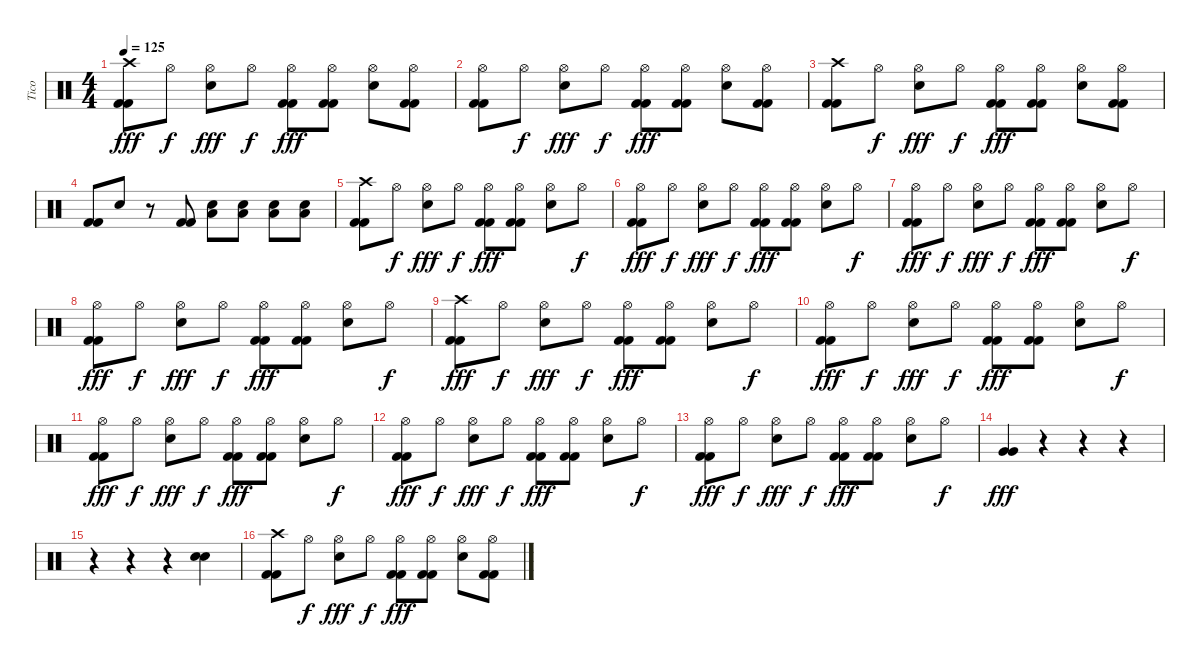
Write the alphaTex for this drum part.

\track ("Tico" "Tico") {instrument percussion}
\staff {score}
\articulation defaults
\ts (4 4)
\tempo 125
\clef neutral
\ks c
("Crash high (hit)" "Kick (hit) 2" "Kick (hit) 2").8{dy fff} "Hi-Hat (open)".8{dy f} ("Hi-Hat (open)" "Snare (hit) 2").8{dy fff} "Hi-Hat (open)".8{dy f} ("Hi-Hat (open)" "Kick (hit) 2" "Kick (hit) 2").8{dy fff} ("Hi-Hat (open)" "Kick (hit) 2" "Kick (hit) 2").8 ("Hi-Hat (open)" "Snare (hit) 2").8 ("Hi-Hat (open)" "Kick (hit) 2" "Kick (hit) 2").8 |
("Hi-Hat (open)" "Kick (hit) 2" "Kick (hit) 2").8 "Hi-Hat (open)".8{dy f} ("Hi-Hat (open)" "Snare (hit) 2").8{dy fff} "Hi-Hat (open)".8{dy f} ("Hi-Hat (open)" "Kick (hit) 2" "Kick (hit) 2").8{dy fff} ("Hi-Hat (open)" "Kick (hit) 2" "Kick (hit) 2").8 ("Hi-Hat (open)" "Snare (hit) 2").8 ("Hi-Hat (open)" "Kick (hit) 2" "Kick (hit) 2").8 |
("Crash high (hit)" "Kick (hit) 2" "Kick (hit) 2").8 "Hi-Hat (open)".8{dy f} ("Hi-Hat (open)" "Snare (hit) 2").8{dy fff} "Hi-Hat (open)".8{dy f} ("Hi-Hat (open)" "Kick (hit) 2" "Kick (hit) 2").8{dy fff} ("Hi-Hat (open)" "Kick (hit) 2" "Kick (hit) 2").8 ("Hi-Hat (open)" "Snare (hit) 2").8 ("Hi-Hat (open)" "Kick (hit) 2" "Kick (hit) 2").8 |
("Kick (hit) 2" "Kick (hit) 2").8 "Snare (hit) 2".8 r.8 ("Kick (hit) 2" "Kick (hit) 2").8 ("Snare (hit) 2" "Low Tom (hit)").8 ("Snare (hit) 2" "Low Tom (hit)").8 ("Snare (hit) 2" "Low Tom (hit)").8 ("Snare (hit) 2" "Low Tom (hit)").8 |
("Crash high (hit)" "Kick (hit) 2" "Kick (hit) 2").8 "Hi-Hat (open)".8{dy f} ("Hi-Hat (open)" "Snare (hit) 2").8{dy fff} "Hi-Hat (open)".8{dy f} ("Hi-Hat (open)" "Kick (hit) 2" "Kick (hit) 2").8{dy fff} ("Hi-Hat (open)" "Kick (hit) 2" "Kick (hit) 2").8 ("Hi-Hat (open)" "Snare (hit) 2").8 "Hi-Hat (open)".8{dy f} |
("Hi-Hat (open)" "Kick (hit) 2" "Kick (hit) 2").8{dy fff} "Hi-Hat (open)".8{dy f} ("Hi-Hat (open)" "Snare (hit) 2").8{dy fff} "Hi-Hat (open)".8{dy f} ("Hi-Hat (open)" "Kick (hit) 2" "Kick (hit) 2").8{dy fff} ("Hi-Hat (open)" "Kick (hit) 2" "Kick (hit) 2").8 ("Hi-Hat (open)" "Snare (hit) 2").8 "Hi-Hat (open)".8{dy f} |
("Hi-Hat (open)" "Kick (hit) 2" "Kick (hit) 2").8{dy fff} "Hi-Hat (open)".8{dy f} ("Hi-Hat (open)" "Snare (hit) 2").8{dy fff} "Hi-Hat (open)".8{dy f} ("Hi-Hat (open)" "Kick (hit) 2" "Kick (hit) 2").8{dy fff} ("Hi-Hat (open)" "Kick (hit) 2" "Kick (hit) 2").8 ("Hi-Hat (open)" "Snare (hit) 2").8 "Hi-Hat (open)".8{dy f} |
("Hi-Hat (open)" "Kick (hit) 2" "Kick (hit) 2").8{dy fff} "Hi-Hat (open)".8{dy f} ("Hi-Hat (open)" "Snare (hit) 2").8{dy fff} "Hi-Hat (open)".8{dy f} ("Hi-Hat (open)" "Kick (hit) 2" "Kick (hit) 2").8{dy fff} ("Hi-Hat (open)" "Kick (hit) 2" "Kick (hit) 2").8 ("Hi-Hat (open)" "Snare (hit) 2").8 "Hi-Hat (open)".8{dy f} |
("Crash high (hit)" "Kick (hit) 2" "Kick (hit) 2").8{dy fff} "Hi-Hat (open)".8{dy f} ("Hi-Hat (open)" "Snare (hit) 2").8{dy fff} "Hi-Hat (open)".8{dy f} ("Hi-Hat (open)" "Kick (hit) 2" "Kick (hit) 2").8{dy fff} ("Hi-Hat (open)" "Kick (hit) 2" "Kick (hit) 2").8 ("Hi-Hat (open)" "Snare (hit) 2").8 "Hi-Hat (open)".8{dy f} |
("Hi-Hat (open)" "Kick (hit) 2" "Kick (hit) 2").8{dy fff} "Hi-Hat (open)".8{dy f} ("Hi-Hat (open)" "Snare (hit) 2").8{dy fff} "Hi-Hat (open)".8{dy f} ("Hi-Hat (open)" "Kick (hit) 2" "Kick (hit) 2").8{dy fff} ("Hi-Hat (open)" "Kick (hit) 2" "Kick (hit) 2").8 ("Hi-Hat (open)" "Snare (hit) 2").8 "Hi-Hat (open)".8{dy f} |
("Hi-Hat (open)" "Kick (hit) 2" "Kick (hit) 2").8{dy fff} "Hi-Hat (open)".8{dy f} ("Hi-Hat (open)" "Snare (hit) 2").8{dy fff} "Hi-Hat (open)".8{dy f} ("Hi-Hat (open)" "Kick (hit) 2" "Kick (hit) 2").8{dy fff} ("Hi-Hat (open)" "Kick (hit) 2" "Kick (hit) 2").8 ("Hi-Hat (open)" "Snare (hit) 2").8 "Hi-Hat (open)".8{dy f} |
("Hi-Hat (open)" "Kick (hit) 2" "Kick (hit) 2").8{dy fff} "Hi-Hat (open)".8{dy f} ("Hi-Hat (open)" "Snare (hit) 2").8{dy fff} "Hi-Hat (open)".8{dy f} ("Hi-Hat (open)" "Kick (hit) 2" "Kick (hit) 2").8{dy fff} ("Hi-Hat (open)" "Kick (hit) 2" "Kick (hit) 2").8 ("Hi-Hat (open)" "Snare (hit) 2").8 "Hi-Hat (open)".8{dy f} |
("Hi-Hat (open)" "Kick (hit) 2" "Kick (hit) 2").8{dy fff} "Hi-Hat (open)".8{dy f} ("Hi-Hat (open)" "Snare (hit) 2").8{dy fff} "Hi-Hat (open)".8{dy f} ("Hi-Hat (open)" "Kick (hit) 2" "Kick (hit) 2").8{dy fff} ("Hi-Hat (open)" "Kick (hit) 2" "Kick (hit) 2").8 ("Hi-Hat (open)" "Snare (hit) 2").8 "Hi-Hat (open)".8{dy f} |
("Very Low Tom (hit)" "Very Low Tom (hit)").4{dy fff} r.4 r.4 r.4 |
r.4 r.4 r.4 ("Snare (hit) 2" "Snare (hit) 2").4 |
("Crash high (hit)" "Kick (hit) 2" "Kick (hit) 2").8 "Hi-Hat (open)".8{dy f} ("Hi-Hat (open)" "Snare (hit) 2").8{dy fff} "Hi-Hat (open)".8{dy f} ("Hi-Hat (open)" "Kick (hit) 2" "Kick (hit) 2").8{dy fff} ("Hi-Hat (open)" "Kick (hit) 2" "Kick (hit) 2").8 ("Hi-Hat (open)" "Snare (hit) 2").8 ("Hi-Hat (open)" "Kick (hit) 2" "Kick (hit) 2").8
